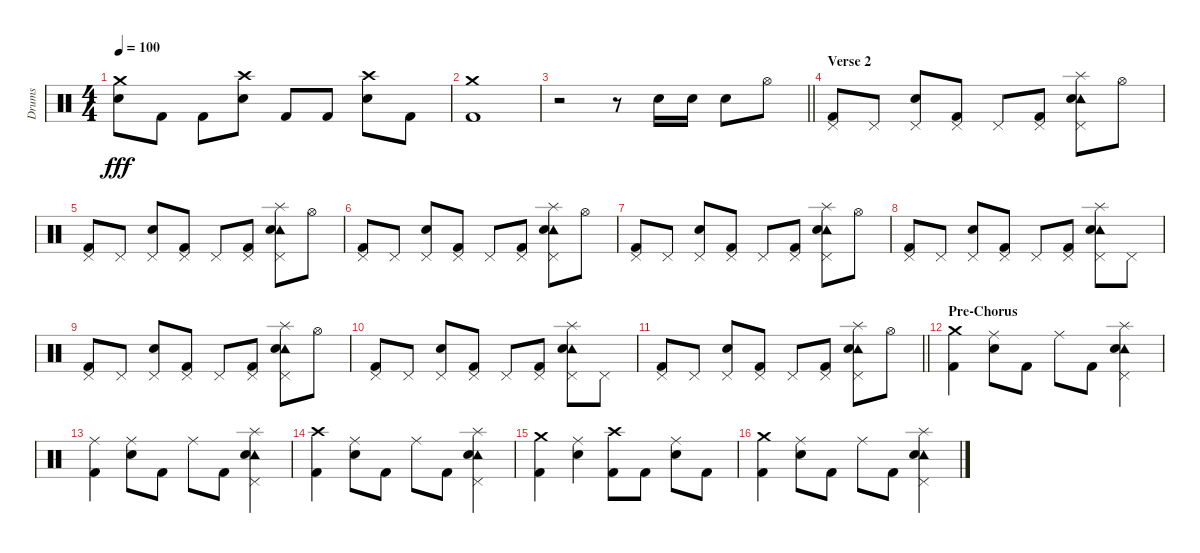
\track ("Drums" "Drums") {instrument percussion}
\staff {score}
\articulation defaults
\ts (4 4)
\tempo 100
\clef neutral
\ks c
("Crash medium (hit)" "Snare (hit) 2").8{dy fff} "Kick (hit) 2".8 "Kick (hit) 2".8 ("Crash high (hit)" "Snare (hit) 2").8 "Kick (hit) 2".8 "Kick (hit) 2".8 ("Crash high (hit)" "Snare (hit) 2").8 "Kick (hit) 2".8 |
("Crash medium (hit)" "Kick (hit) 2").1 |
\barLineRight lightlight
r.2 r.8 "Snare (hit) 2".16 "Snare (hit) 2".16 "Snare (hit) 2".8 "Hi-Hat (open)".8 |
\section ("" "Verse 2")
("Pedal Hi-Hat (hit)" "Kick (hit) 2").8 "Pedal Hi-Hat (hit)".8 ("Pedal Hi-Hat (hit)" "Snare (hit) 2").8 ("Pedal Hi-Hat (hit)" "Kick (hit) 2").8 "Pedal Hi-Hat (hit)".8 ("Pedal Hi-Hat (hit)" "Kick (hit) 2").8 ("Tambourine (hit)" "Pedal Hi-Hat (hit)" "Splash (hit)" "Snare (hit) 2").8 "Hi-Hat (open)".8 |
("Pedal Hi-Hat (hit)" "Kick (hit) 2").8 "Pedal Hi-Hat (hit)".8 ("Pedal Hi-Hat (hit)" "Snare (hit) 2").8 ("Pedal Hi-Hat (hit)" "Kick (hit) 2").8 "Pedal Hi-Hat (hit)".8 ("Pedal Hi-Hat (hit)" "Kick (hit) 2").8 ("Tambourine (hit)" "Pedal Hi-Hat (hit)" "Splash (hit)" "Snare (hit) 2").8 "Hi-Hat (open)".8 |
("Pedal Hi-Hat (hit)" "Kick (hit) 2").8 "Pedal Hi-Hat (hit)".8 ("Pedal Hi-Hat (hit)" "Snare (hit) 2").8 ("Pedal Hi-Hat (hit)" "Kick (hit) 2").8 "Pedal Hi-Hat (hit)".8 ("Pedal Hi-Hat (hit)" "Kick (hit) 2").8 ("Tambourine (hit)" "Pedal Hi-Hat (hit)" "Splash (hit)" "Snare (hit) 2").8 "Hi-Hat (open)".8 |
("Pedal Hi-Hat (hit)" "Kick (hit) 2").8 "Pedal Hi-Hat (hit)".8 ("Pedal Hi-Hat (hit)" "Snare (hit) 2").8 ("Pedal Hi-Hat (hit)" "Kick (hit) 2").8 "Pedal Hi-Hat (hit)".8 ("Pedal Hi-Hat (hit)" "Kick (hit) 2").8 ("Tambourine (hit)" "Pedal Hi-Hat (hit)" "Splash (hit)" "Snare (hit) 2").8 "Hi-Hat (open)".8 |
("Pedal Hi-Hat (hit)" "Kick (hit) 2").8 "Pedal Hi-Hat (hit)".8 ("Pedal Hi-Hat (hit)" "Snare (hit) 2").8 ("Pedal Hi-Hat (hit)" "Kick (hit) 2").8 "Pedal Hi-Hat (hit)".8 ("Pedal Hi-Hat (hit)" "Kick (hit) 2").8 ("Tambourine (hit)" "Pedal Hi-Hat (hit)" "Splash (hit)" "Snare (hit) 2").8 "Pedal Hi-Hat (hit)".8 |
("Pedal Hi-Hat (hit)" "Kick (hit) 2").8 "Pedal Hi-Hat (hit)".8 ("Pedal Hi-Hat (hit)" "Snare (hit) 2").8 ("Pedal Hi-Hat (hit)" "Kick (hit) 2").8 "Pedal Hi-Hat (hit)".8 ("Pedal Hi-Hat (hit)" "Kick (hit) 2").8 ("Tambourine (hit)" "Pedal Hi-Hat (hit)" "Splash (hit)" "Snare (hit) 2").8 "Hi-Hat (open)".8 |
("Pedal Hi-Hat (hit)" "Kick (hit) 2").8 "Pedal Hi-Hat (hit)".8 ("Pedal Hi-Hat (hit)" "Snare (hit) 2").8 ("Pedal Hi-Hat (hit)" "Kick (hit) 2").8 "Pedal Hi-Hat (hit)".8 ("Pedal Hi-Hat (hit)" "Kick (hit) 2").8 ("Tambourine (hit)" "Pedal Hi-Hat (hit)" "Splash (hit)" "Snare (hit) 2").8 "Pedal Hi-Hat (hit)".8 |
\barLineRight lightlight
("Pedal Hi-Hat (hit)" "Kick (hit) 2").8 "Pedal Hi-Hat (hit)".8 ("Pedal Hi-Hat (hit)" "Snare (hit) 2").8 ("Pedal Hi-Hat (hit)" "Kick (hit) 2").8 "Pedal Hi-Hat (hit)".8 ("Pedal Hi-Hat (hit)" "Kick (hit) 2").8 ("Tambourine (hit)" "Pedal Hi-Hat (hit)" "Splash (hit)" "Snare (hit) 2").8 "Hi-Hat (open)".8 |
\section ("" "Pre-Chorus")
("Crash medium (hit)" "Kick (hit) 2").4 ("Ride (middle)" "Snare (hit) 2").8 "Kick (hit) 2".8 "Ride (middle)".8 "Kick (hit) 2".8 ("Tambourine (hit)" "Pedal Hi-Hat (hit)" "Splash (hit)" "Snare (hit) 2").4 |
("Ride (middle)" "Kick (hit) 2").4 ("Ride (middle)" "Snare (hit) 2").8 "Kick (hit) 2".8 "Ride (middle)".8 "Kick (hit) 2".8 ("Tambourine (hit)" "Pedal Hi-Hat (hit)" "Splash (hit)" "Snare (hit) 2").4 |
("Crash high (hit)" "Kick (hit) 2").4 ("Ride (middle)" "Snare (hit) 2").8 "Kick (hit) 2".8 "Ride (middle)".8 "Kick (hit) 2".8 ("Tambourine (hit)" "Pedal Hi-Hat (hit)" "Splash (hit)" "Snare (hit) 2").4 |
("Crash medium (hit)" "Kick (hit) 2").4 ("Ride (middle)" "Snare (hit) 2").4 ("Crash high (hit)" "Kick (hit) 2").8 "Kick (hit) 2".8 ("Ride (middle)" "Snare (hit) 2").8 "Kick (hit) 2".8 |
("Crash medium (hit)" "Kick (hit) 2").4 ("Ride (middle)" "Snare (hit) 2").8 "Kick (hit) 2".8 "Ride (middle)".8 "Kick (hit) 2".8 ("Tambourine (hit)" "Pedal Hi-Hat (hit)" "Splash (hit)" "Snare (hit) 2").4
